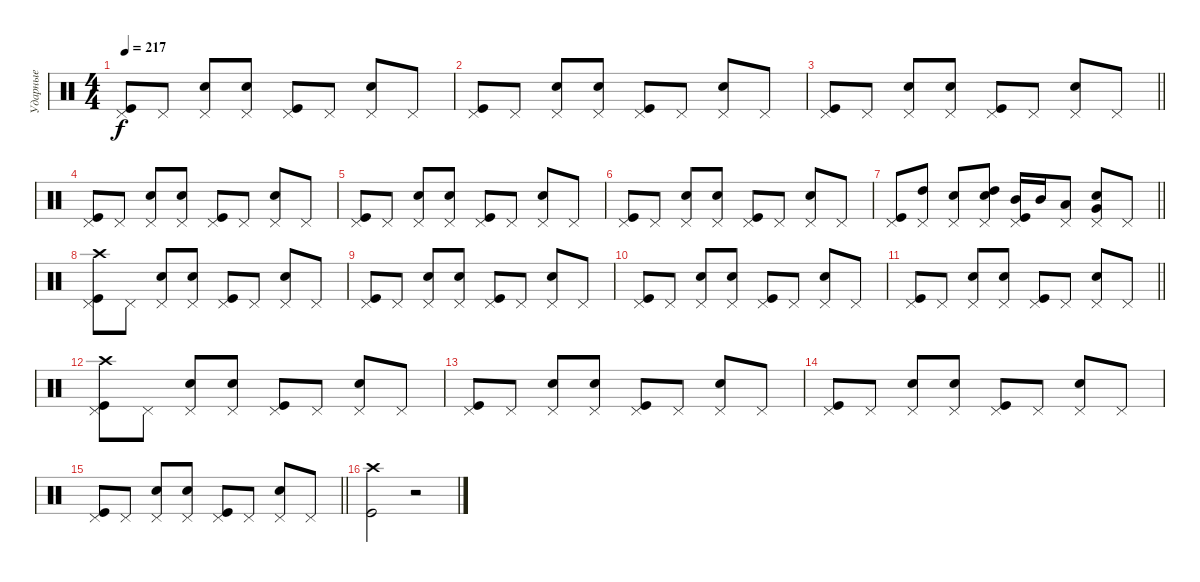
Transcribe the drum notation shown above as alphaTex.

\track ("Ударные" "Ударные") {instrument percussion}
\staff {score}
\articulation defaults
\ts (4 4)
\tempo 217
\clef neutral
\ks c
("Pedal Hi-Hat (hit)" "Kick (hit)").8{dy f} "Pedal Hi-Hat (hit)".8 ("Pedal Hi-Hat (hit)" "Snare (hit) 2").8 ("Pedal Hi-Hat (hit)" "Snare (hit) 2").8 ("Pedal Hi-Hat (hit)" "Kick (hit)").8 "Pedal Hi-Hat (hit)".8 ("Pedal Hi-Hat (hit)" "Snare (hit) 2").8 "Pedal Hi-Hat (hit)".8 |
("Pedal Hi-Hat (hit)" "Kick (hit)").8 "Pedal Hi-Hat (hit)".8 ("Pedal Hi-Hat (hit)" "Snare (hit) 2").8 ("Pedal Hi-Hat (hit)" "Snare (hit) 2").8 ("Pedal Hi-Hat (hit)" "Kick (hit)").8 "Pedal Hi-Hat (hit)".8 ("Pedal Hi-Hat (hit)" "Snare (hit) 2").8 "Pedal Hi-Hat (hit)".8 |
\barLineRight lightlight
("Pedal Hi-Hat (hit)" "Kick (hit)").8 "Pedal Hi-Hat (hit)".8 ("Pedal Hi-Hat (hit)" "Snare (hit) 2").8 ("Pedal Hi-Hat (hit)" "Snare (hit) 2").8 ("Pedal Hi-Hat (hit)" "Kick (hit)").8 "Pedal Hi-Hat (hit)".8 ("Pedal Hi-Hat (hit)" "Snare (hit) 2").8 "Pedal Hi-Hat (hit)".8 |
("Pedal Hi-Hat (hit)" "Kick (hit)").8 "Pedal Hi-Hat (hit)".8 ("Pedal Hi-Hat (hit)" "Snare (hit) 2").8 ("Pedal Hi-Hat (hit)" "Snare (hit) 2").8 ("Pedal Hi-Hat (hit)" "Kick (hit)").8 "Pedal Hi-Hat (hit)".8 ("Pedal Hi-Hat (hit)" "Snare (hit) 2").8 "Pedal Hi-Hat (hit)".8 |
("Pedal Hi-Hat (hit)" "Kick (hit)").8 "Pedal Hi-Hat (hit)".8 ("Pedal Hi-Hat (hit)" "Snare (hit) 2").8 ("Pedal Hi-Hat (hit)" "Snare (hit) 2").8 ("Pedal Hi-Hat (hit)" "Kick (hit)").8 "Pedal Hi-Hat (hit)".8 ("Pedal Hi-Hat (hit)" "Snare (hit) 2").8 "Pedal Hi-Hat (hit)".8 |
("Pedal Hi-Hat (hit)" "Kick (hit)").8 "Pedal Hi-Hat (hit)".8 ("Pedal Hi-Hat (hit)" "Snare (hit) 2").8 ("Pedal Hi-Hat (hit)" "Snare (hit) 2").8 ("Pedal Hi-Hat (hit)" "Kick (hit)").8 "Pedal Hi-Hat (hit)".8 ("Pedal Hi-Hat (hit)" "Snare (hit) 2").8 "Pedal Hi-Hat (hit)".8 |
\barLineRight lightlight
("Pedal Hi-Hat (hit)" "Kick (hit)").8 ("Pedal Hi-Hat (hit)" "High Tom (hit)").8 ("Pedal Hi-Hat (hit)" "Snare (hit) 2").8 ("Pedal Hi-Hat (hit)" "Snare (hit) 2" "High Tom (hit)").8 ("Pedal Hi-Hat (hit)" "Kick (hit)" "Mid Tom (hit)").16 "Mid Tom (hit)".16 ("Pedal Hi-Hat (hit)" "Low Tom (hit)").8 ("Pedal Hi-Hat (hit)" "Snare (hit) 2" "Very Low Tom (hit)").8 "Pedal Hi-Hat (hit)".8 |
("Pedal Hi-Hat (hit)" "Kick (hit)" "Crash high (hit)").8 "Pedal Hi-Hat (hit)".8 ("Pedal Hi-Hat (hit)" "Snare (hit) 2").8 ("Pedal Hi-Hat (hit)" "Snare (hit) 2").8 ("Pedal Hi-Hat (hit)" "Kick (hit)").8 "Pedal Hi-Hat (hit)".8 ("Pedal Hi-Hat (hit)" "Snare (hit) 2").8 "Pedal Hi-Hat (hit)".8 |
("Pedal Hi-Hat (hit)" "Kick (hit)").8 "Pedal Hi-Hat (hit)".8 ("Pedal Hi-Hat (hit)" "Snare (hit) 2").8 ("Pedal Hi-Hat (hit)" "Snare (hit) 2").8 ("Pedal Hi-Hat (hit)" "Kick (hit)").8 "Pedal Hi-Hat (hit)".8 ("Pedal Hi-Hat (hit)" "Snare (hit) 2").8 "Pedal Hi-Hat (hit)".8 |
("Pedal Hi-Hat (hit)" "Kick (hit)").8 "Pedal Hi-Hat (hit)".8 ("Pedal Hi-Hat (hit)" "Snare (hit) 2").8 ("Pedal Hi-Hat (hit)" "Snare (hit) 2").8 ("Pedal Hi-Hat (hit)" "Kick (hit)").8 "Pedal Hi-Hat (hit)".8 ("Pedal Hi-Hat (hit)" "Snare (hit) 2").8 "Pedal Hi-Hat (hit)".8 |
\barLineRight lightlight
("Pedal Hi-Hat (hit)" "Kick (hit)").8 "Pedal Hi-Hat (hit)".8 ("Pedal Hi-Hat (hit)" "Snare (hit) 2").8 ("Pedal Hi-Hat (hit)" "Snare (hit) 2").8 ("Pedal Hi-Hat (hit)" "Kick (hit)").8 "Pedal Hi-Hat (hit)".8 ("Pedal Hi-Hat (hit)" "Snare (hit) 2").8 "Pedal Hi-Hat (hit)".8 |
("Pedal Hi-Hat (hit)" "Kick (hit)" "Crash high (hit)").8 "Pedal Hi-Hat (hit)".8 ("Pedal Hi-Hat (hit)" "Snare (hit) 2").8 ("Pedal Hi-Hat (hit)" "Snare (hit) 2").8 ("Pedal Hi-Hat (hit)" "Kick (hit)").8 "Pedal Hi-Hat (hit)".8 ("Pedal Hi-Hat (hit)" "Snare (hit) 2").8 "Pedal Hi-Hat (hit)".8 |
("Pedal Hi-Hat (hit)" "Kick (hit)").8 "Pedal Hi-Hat (hit)".8 ("Pedal Hi-Hat (hit)" "Snare (hit) 2").8 ("Pedal Hi-Hat (hit)" "Snare (hit) 2").8 ("Pedal Hi-Hat (hit)" "Kick (hit)").8 "Pedal Hi-Hat (hit)".8 ("Pedal Hi-Hat (hit)" "Snare (hit) 2").8 "Pedal Hi-Hat (hit)".8 |
("Pedal Hi-Hat (hit)" "Kick (hit)").8 "Pedal Hi-Hat (hit)".8 ("Pedal Hi-Hat (hit)" "Snare (hit) 2").8 ("Pedal Hi-Hat (hit)" "Snare (hit) 2").8 ("Pedal Hi-Hat (hit)" "Kick (hit)").8 "Pedal Hi-Hat (hit)".8 ("Pedal Hi-Hat (hit)" "Snare (hit) 2").8 "Pedal Hi-Hat (hit)".8 |
\barLineRight lightlight
("Pedal Hi-Hat (hit)" "Kick (hit)").8 "Pedal Hi-Hat (hit)".8 ("Pedal Hi-Hat (hit)" "Snare (hit) 2").8 ("Pedal Hi-Hat (hit)" "Snare (hit) 2").8 ("Pedal Hi-Hat (hit)" "Kick (hit)").8 "Pedal Hi-Hat (hit)".8 ("Pedal Hi-Hat (hit)" "Snare (hit) 2").8 "Pedal Hi-Hat (hit)".8 |
("Kick (hit)" "Crash high (hit)").2 r.2
